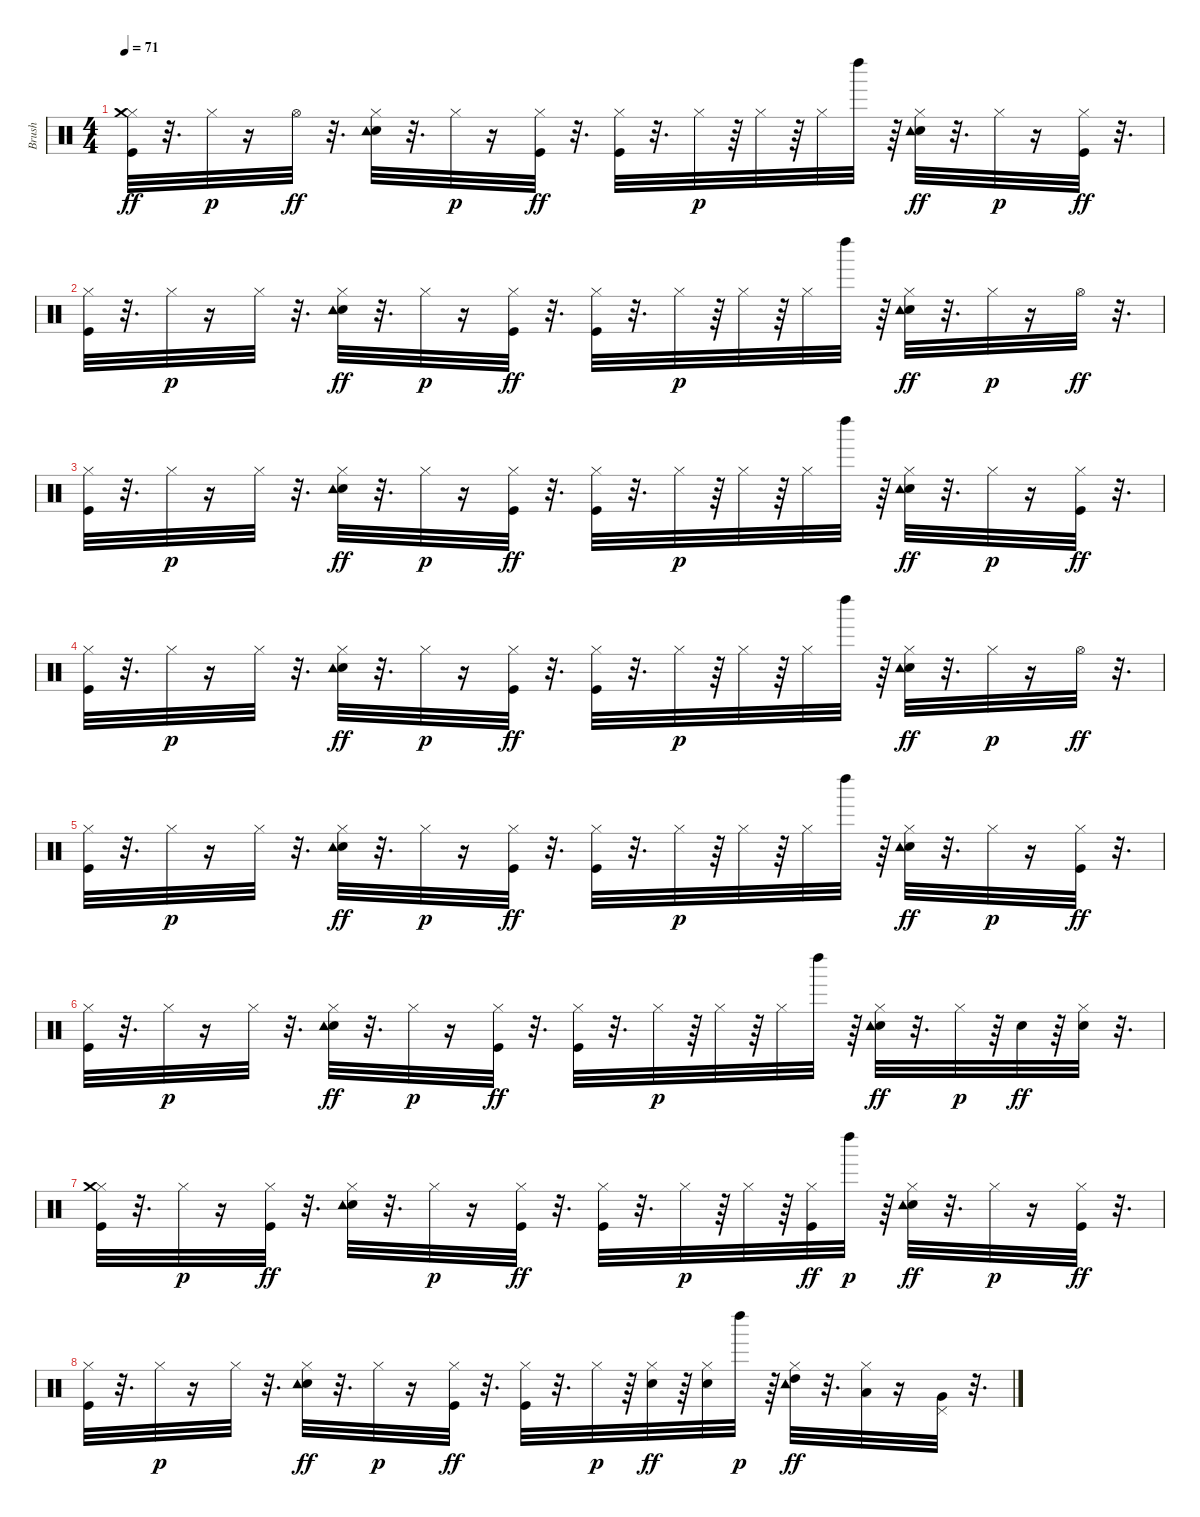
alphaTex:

\track ("Brush               " "Brush     ") {instrument percussion}
\staff {score}
\articulation defaults
\ts (4 4)
\tempo 71
\clef neutral
\ks c
("Hi-Hat (closed)" "Kick (hit)" "Crash medium (hit)").32{dy ff} r.32{d} "Hi-Hat (closed)".32{dy p} r.16 "Hi-Hat (open)".32{dy ff} r.32{d} ("Hi-Hat (closed)" "Snare (hit) 2" "Tambourine (hit)").32 r.32{d} "Hi-Hat (closed)".32{dy p} r.16 ("Hi-Hat (closed)" "Kick (hit)").32{dy ff} r.32{d} ("Hi-Hat (closed)" "Kick (hit)").32 r.32{d} "Hi-Hat (closed)".32{dy p} r.64 "Hi-Hat (closed)".32 r.64 "Hi-Hat (closed)".32 "Left Maraca (hit)".32 r.64 ("Hi-Hat (closed)" "Snare (hit) 2" "Tambourine (hit)").32{dy ff} r.32{d} "Hi-Hat (closed)".32{dy p} r.16 ("Hi-Hat (closed)" "Kick (hit)").32{dy ff} r.32{d} |
("Hi-Hat (closed)" "Kick (hit)").32 r.32{d} "Hi-Hat (closed)".32{dy p} r.16 "Hi-Hat (closed)".32 r.32{d} ("Hi-Hat (closed)" "Snare (hit) 2" "Tambourine (hit)").32{dy ff} r.32{d} "Hi-Hat (closed)".32{dy p} r.16 ("Hi-Hat (closed)" "Kick (hit)").32{dy ff} r.32{d} ("Hi-Hat (closed)" "Kick (hit)").32 r.32{d} "Hi-Hat (closed)".32{dy p} r.64 "Hi-Hat (closed)".32 r.64 "Hi-Hat (closed)".32 "Left Maraca (hit)".32 r.64 ("Hi-Hat (closed)" "Snare (hit) 2" "Tambourine (hit)").32{dy ff} r.32{d} "Hi-Hat (closed)".32{dy p} r.16 "Hi-Hat (open)".32{dy ff} r.32{d} |
("Hi-Hat (closed)" "Kick (hit)").32 r.32{d} "Hi-Hat (closed)".32{dy p} r.16 "Hi-Hat (closed)".32 r.32{d} ("Hi-Hat (closed)" "Snare (hit) 2" "Tambourine (hit)").32{dy ff} r.32{d} "Hi-Hat (closed)".32{dy p} r.16 ("Hi-Hat (closed)" "Kick (hit)").32{dy ff} r.32{d} ("Hi-Hat (closed)" "Kick (hit)").32 r.32{d} "Hi-Hat (closed)".32{dy p} r.64 "Hi-Hat (closed)".32 r.64 "Hi-Hat (closed)".32 "Left Maraca (hit)".32 r.64 ("Hi-Hat (closed)" "Snare (hit) 2" "Tambourine (hit)").32{dy ff} r.32{d} "Hi-Hat (closed)".32{dy p} r.16 ("Hi-Hat (closed)" "Kick (hit)").32{dy ff} r.32{d} |
("Hi-Hat (closed)" "Kick (hit)").32 r.32{d} "Hi-Hat (closed)".32{dy p} r.16 "Hi-Hat (closed)".32 r.32{d} ("Hi-Hat (closed)" "Snare (hit) 2" "Tambourine (hit)").32{dy ff} r.32{d} "Hi-Hat (closed)".32{dy p} r.16 ("Hi-Hat (closed)" "Kick (hit)").32{dy ff} r.32{d} ("Hi-Hat (closed)" "Kick (hit)").32 r.32{d} "Hi-Hat (closed)".32{dy p} r.64 "Hi-Hat (closed)".32 r.64 "Hi-Hat (closed)".32 "Left Maraca (hit)".32 r.64 ("Hi-Hat (closed)" "Snare (hit) 2" "Tambourine (hit)").32{dy ff} r.32{d} "Hi-Hat (closed)".32{dy p} r.16 "Hi-Hat (open)".32{dy ff} r.32{d} |
("Hi-Hat (closed)" "Kick (hit)").32 r.32{d} "Hi-Hat (closed)".32{dy p} r.16 "Hi-Hat (closed)".32 r.32{d} ("Hi-Hat (closed)" "Snare (hit) 2" "Tambourine (hit)").32{dy ff} r.32{d} "Hi-Hat (closed)".32{dy p} r.16 ("Hi-Hat (closed)" "Kick (hit)").32{dy ff} r.32{d} ("Hi-Hat (closed)" "Kick (hit)").32 r.32{d} "Hi-Hat (closed)".32{dy p} r.64 "Hi-Hat (closed)".32 r.64 "Hi-Hat (closed)".32 "Left Maraca (hit)".32 r.64 ("Hi-Hat (closed)" "Snare (hit) 2" "Tambourine (hit)").32{dy ff} r.32{d} "Hi-Hat (closed)".32{dy p} r.16 ("Hi-Hat (closed)" "Kick (hit)").32{dy ff} r.32{d} |
("Hi-Hat (closed)" "Kick (hit)").32 r.32{d} "Hi-Hat (closed)".32{dy p} r.16 "Hi-Hat (closed)".32 r.32{d} ("Hi-Hat (closed)" "Snare (hit) 2" "Tambourine (hit)").32{dy ff} r.32{d} "Hi-Hat (closed)".32{dy p} r.16 ("Hi-Hat (closed)" "Kick (hit)").32{dy ff} r.32{d} ("Hi-Hat (closed)" "Kick (hit)").32 r.32{d} "Hi-Hat (closed)".32{dy p} r.64 "Hi-Hat (closed)".32 r.64 "Hi-Hat (closed)".32 "Left Maraca (hit)".32 r.64 ("Hi-Hat (closed)" "Snare (hit) 2" "Tambourine (hit)").32{dy ff} r.32{d} "Hi-Hat (closed)".32{dy p} r.64 "Snare (hit) 2".32{dy ff} r.64 ("Hi-Hat (closed)" "Snare (hit) 2").32 r.32{d} |
("Hi-Hat (closed)" "Kick (hit)" "Crash medium (hit)").32 r.32{d} "Hi-Hat (closed)".32{dy p} r.16 ("Hi-Hat (closed)" "Kick (hit)").32{dy ff} r.32{d} ("Hi-Hat (closed)" "Snare (hit) 2" "Tambourine (hit)").32 r.32{d} "Hi-Hat (closed)".32{dy p} r.16 ("Hi-Hat (closed)" "Kick (hit)").32{dy ff} r.32{d} ("Hi-Hat (closed)" "Kick (hit)").32 r.32{d} "Hi-Hat (closed)".32{dy p} r.64 "Hi-Hat (closed)".32 r.64 ("Hi-Hat (closed)" "Kick (hit)").32{dy ff} "Left Maraca (hit)".32{dy p} r.64 ("Hi-Hat (closed)" "Snare (hit) 2" "Tambourine (hit)").32{dy ff} r.32{d} "Hi-Hat (closed)".32{dy p} r.16 ("Hi-Hat (closed)" "Kick (hit)").32{dy ff} r.32{d} |
("Hi-Hat (closed)" "Kick (hit)").32 r.32{d} "Hi-Hat (closed)".32{dy p} r.16 "Hi-Hat (closed)".32 r.32{d} ("Hi-Hat (closed)" "Snare (hit) 2" "Tambourine (hit)").32{dy ff} r.32{d} "Hi-Hat (closed)".32{dy p} r.16 ("Hi-Hat (closed)" "Kick (hit)").32{dy ff} r.32{d} ("Hi-Hat (closed)" "Kick (hit)").32 r.32{d} "Hi-Hat (closed)".32{dy p} r.64 ("Hi-Hat (closed)" "Snare (hit) 2").32{dy ff} r.64 ("Hi-Hat (closed)" "Snare (hit) 2").32 "Left Maraca (hit)".32{dy p} r.64 ("Hi-Hat (closed)" "Tambourine (hit)" "High Tom (hit)").32{dy ff} r.32{d} ("Hi-Hat (closed)" "Low Tom (hit)").32 r.16 ("Very Low Tom (hit)" "Pedal Hi-Hat (hit)").32 r.32{d}
